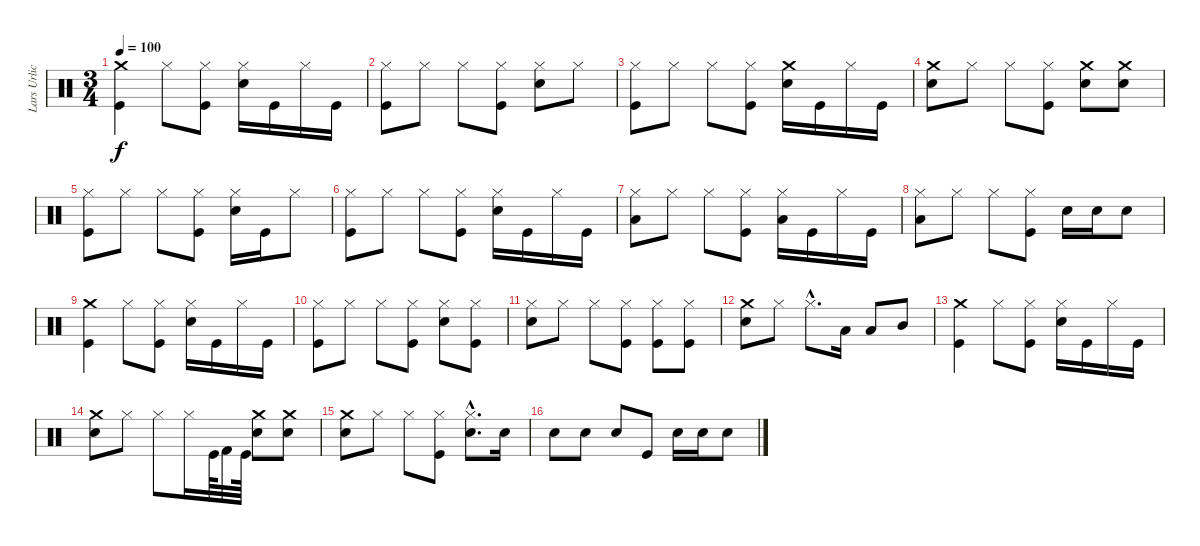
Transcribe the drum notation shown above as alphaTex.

\track ("Lars Urlich" "Lars Urlic") {instrument percussion}
\staff {score}
\articulation defaults
\ts (3 4)
\tempo 100
\clef neutral
\ks c
("Crash medium (hit)" "Kick (hit)").4{dy f} "Hi-Hat (closed)".8 ("Kick (hit)" "Hi-Hat (closed)").8 ("Snare (hit) 2" "Hi-Hat (closed)").16 "Kick (hit)".16 "Hi-Hat (closed)".16 "Kick (hit)".16 |
("Hi-Hat (closed)" "Kick (hit)").8 "Hi-Hat (closed)".8 "Hi-Hat (closed)".8 ("Hi-Hat (closed)" "Kick (hit)").8 ("Snare (hit) 2" "Hi-Hat (closed)").8 "Hi-Hat (closed)".8 |
("Hi-Hat (closed)" "Kick (hit)").8 "Hi-Hat (closed)".8 "Hi-Hat (closed)".8 ("Kick (hit)" "Hi-Hat (closed)").8 ("Crash medium (hit)" "Snare (hit) 2").16 "Kick (hit)".16 "Hi-Hat (closed)".16 "Kick (hit)".16 |
("Crash medium (hit)" "Snare (hit) 2").8 "Hi-Hat (closed)".8 "Hi-Hat (closed)".8 ("Kick (hit)" "Hi-Hat (closed)").8 ("Crash medium (hit)" "Snare (hit) 2").8 ("Snare (hit) 2" "Crash medium (hit)").8 |
("Hi-Hat (closed)" "Kick (hit)").8 "Hi-Hat (closed)".8 "Hi-Hat (closed)".8 ("Kick (hit)" "Hi-Hat (closed)").8 ("Hi-Hat (closed)" "Snare (hit) 2").16 "Kick (hit)".16 "Hi-Hat (closed)".8 |
("Hi-Hat (closed)" "Kick (hit)").8 "Hi-Hat (closed)".8 "Hi-Hat (closed)".8 ("Kick (hit)" "Hi-Hat (closed)").8 ("Hi-Hat (closed)" "Snare (hit) 2").16 "Kick (hit)".16 "Hi-Hat (closed)".16 "Kick (hit)".16 |
("Hi-Hat (closed)" "Low Tom (hit)").8 "Hi-Hat (closed)".8 "Hi-Hat (closed)".8 ("Kick (hit)" "Hi-Hat (closed)").8 ("Hi-Hat (closed)" "Low Tom (hit)").16 "Kick (hit)".16 "Hi-Hat (closed)".16 "Kick (hit)".16 |
("Hi-Hat (closed)" "Low Tom (hit)").8 "Hi-Hat (closed)".8 "Hi-Hat (closed)".8 ("Kick (hit)" "Hi-Hat (closed)").8 "Snare (hit) 2".16 "Snare (hit) 2".16 "Snare (hit) 2".8 |
("Kick (hit)" "Crash medium (hit)").4 "Hi-Hat (closed)".8 ("Kick (hit)" "Hi-Hat (closed)").8 ("Hi-Hat (closed)" "Snare (hit) 2").16 "Kick (hit)".16 "Hi-Hat (closed)".16 "Kick (hit)".16 |
("Hi-Hat (closed)" "Kick (hit)").8 "Hi-Hat (closed)".8 "Hi-Hat (closed)".8 ("Kick (hit)" "Hi-Hat (closed)").8 ("Hi-Hat (closed)" "Snare (hit) 2").8 ("Kick (hit)" "Hi-Hat (closed)").8 |
("Hi-Hat (closed)" "Snare (hit) 2").8 "Hi-Hat (closed)".8 "Hi-Hat (closed)".8 ("Kick (hit)" "Hi-Hat (closed)").8 ("Hi-Hat (closed)" "Kick (hit)").8 ("Hi-Hat (closed)" "Kick (hit)").8 |
("Crash medium (hit)" "Snare (hit) 2").8 "Hi-Hat (closed)".8 "Hi-Hat (closed)"{hac}.8{d} "Low Tom (hit)".16 "Low Tom (hit)".8 "Mid Tom (hit)".8 |
("Crash medium (hit)" "Kick (hit)").4 "Hi-Hat (closed)".8 ("Kick (hit)" "Hi-Hat (closed)").8 ("Hi-Hat (closed)" "Snare (hit) 2").16 "Kick (hit)".16 "Hi-Hat (closed)".16 "Kick (hit)".16 |
("Crash medium (hit)" "Snare (hit) 2").8 "Hi-Hat (closed)".8 "Hi-Hat (closed)".8 "Hi-Hat (closed)".16 "Kick (hit)".64 "Kick (hit) 2".32 "Kick (hit)".64 ("Crash medium (hit)" "Snare (hit) 2").8 ("Crash medium (hit)" "Snare (hit) 2").8 |
("Crash medium (hit)" "Snare (hit) 2").8 "Hi-Hat (closed)".8 "Hi-Hat (closed)".8 ("Kick (hit)" "Hi-Hat (closed)").8 ("Hi-Hat (closed)"{hac} "Snare (hit) 2"{hac}).8{d} "Snare (hit) 2".16 |
"Snare (hit) 2".8 "Snare (hit) 2".8 "Snare (hit) 2".8 "Kick (hit)".8 "Snare (hit) 2".16 "Snare (hit) 2".16 "Snare (hit) 2".8
